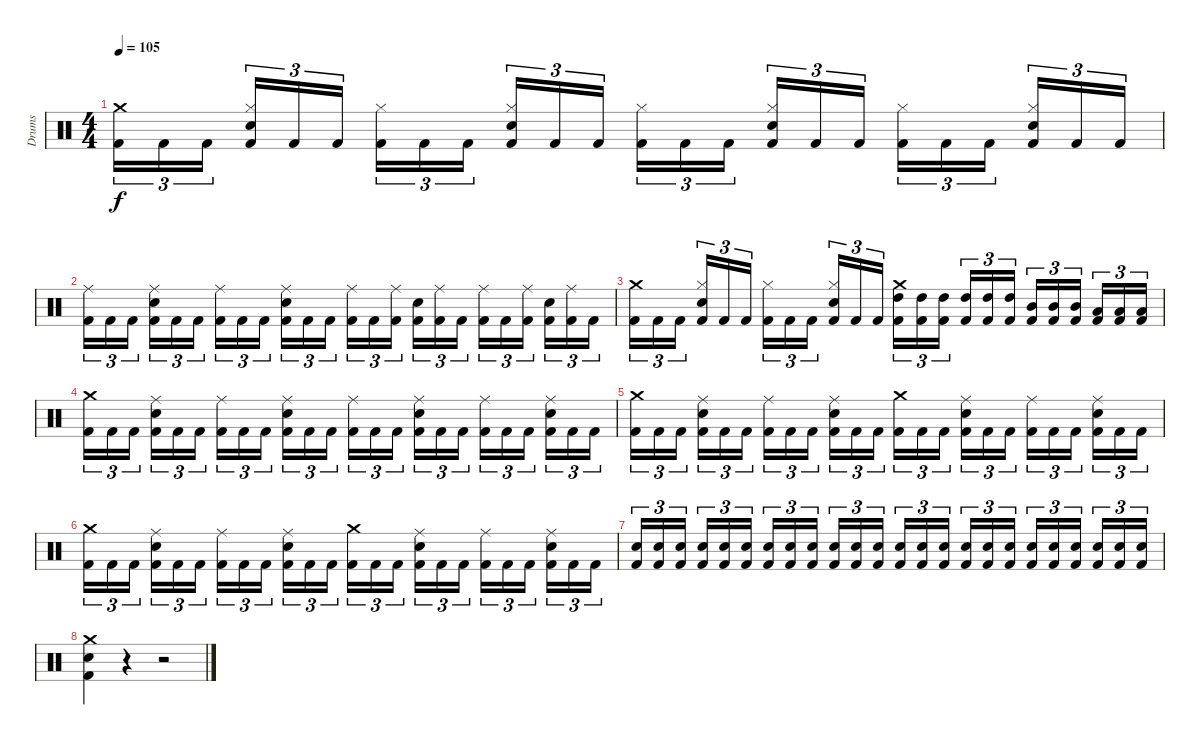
\track ("Drums" "Drums") {instrument percussion}
\staff {score}
\articulation defaults
\ts (4 4)
\tempo 105
\clef neutral
\ks c
("Crash medium (hit)" "Kick (hit) 2").16{tu (3 2) dy f} "Kick (hit) 2".16{tu (3 2)} "Kick (hit) 2".16{tu (3 2)} ("Hi-Hat (closed)" "Electric Snare (hit)" "Kick (hit) 2").16{tu (3 2)} "Kick (hit) 2".16{tu (3 2)} "Kick (hit) 2".16{tu (3 2)} ("Hi-Hat (closed)" "Kick (hit) 2").16{tu (3 2)} "Kick (hit) 2".16{tu (3 2)} "Kick (hit) 2".16{tu (3 2)} ("Hi-Hat (closed)" "Electric Snare (hit)" "Kick (hit) 2").16{tu (3 2)} "Kick (hit) 2".16{tu (3 2)} "Kick (hit) 2".16{tu (3 2)} ("Hi-Hat (closed)" "Kick (hit) 2").16{tu (3 2)} "Kick (hit) 2".16{tu (3 2)} "Kick (hit) 2".16{tu (3 2)} ("Hi-Hat (closed)" "Electric Snare (hit)" "Kick (hit) 2").16{tu (3 2)} "Kick (hit) 2".16{tu (3 2)} "Kick (hit) 2".16{tu (3 2)} ("Hi-Hat (closed)" "Kick (hit) 2").16{tu (3 2)} "Kick (hit) 2".16{tu (3 2)} "Kick (hit) 2".16{tu (3 2)} ("Hi-Hat (closed)" "Electric Snare (hit)" "Kick (hit) 2").16{tu (3 2)} "Kick (hit) 2".16{tu (3 2)} "Kick (hit) 2".16{tu (3 2)} |
("Ride (middle)" "Kick (hit) 2").16{tu (3 2)} "Kick (hit) 2".16{tu (3 2)} "Kick (hit) 2".16{tu (3 2)} ("Ride (middle)" "Electric Snare (hit)" "Kick (hit) 2").16{tu (3 2)} "Kick (hit) 2".16{tu (3 2)} "Kick (hit) 2".16{tu (3 2)} ("Ride (middle)" "Kick (hit) 2").16{tu (3 2)} "Kick (hit) 2".16{tu (3 2)} "Kick (hit) 2".16{tu (3 2)} ("Ride (middle)" "Electric Snare (hit)" "Kick (hit) 2").16{tu (3 2)} "Kick (hit) 2".16{tu (3 2)} "Kick (hit) 2".16{tu (3 2)} ("Ride (middle)" "Kick (hit) 2").16{tu (3 2)} "Kick (hit) 2".16{tu (3 2)} ("Ride (middle)" "Kick (hit) 2").16{tu (3 2)} ("Electric Snare (hit)" "Kick (hit) 2").16{tu (3 2)} ("Ride (middle)" "Kick (hit) 2").16{tu (3 2)} "Kick (hit) 2".16{tu (3 2)} ("Ride (middle)" "Kick (hit) 2").16{tu (3 2)} "Kick (hit) 2".16{tu (3 2)} ("Ride (middle)" "Kick (hit) 2").16{tu (3 2)} ("Electric Snare (hit)" "Kick (hit) 2").16{tu (3 2)} ("Ride (middle)" "Kick (hit) 2").16{tu (3 2)} "Kick (hit) 2".16{tu (3 2)} |
("Crash medium (hit)" "Kick (hit) 2").16{tu (3 2)} "Kick (hit) 2".16{tu (3 2)} "Kick (hit) 2".16{tu (3 2)} ("Hi-Hat (closed)" "Electric Snare (hit)" "Kick (hit) 2").16{tu (3 2)} "Kick (hit) 2".16{tu (3 2)} "Kick (hit) 2".16{tu (3 2)} ("Hi-Hat (closed)" "Kick (hit) 2").16{tu (3 2)} "Kick (hit) 2".16{tu (3 2)} "Kick (hit) 2".16{tu (3 2)} ("Hi-Hat (closed)" "Electric Snare (hit)" "Kick (hit) 2").16{tu (3 2)} "Kick (hit) 2".16{tu (3 2)} "Kick (hit) 2".16{tu (3 2)} ("Crash medium (hit)" "High Tom (hit)" "Kick (hit) 2").16{tu (3 2)} ("High Tom (hit)" "Kick (hit) 2").16{tu (3 2)} ("High Tom (hit)" "Kick (hit) 2").16{tu (3 2)} ("High Tom (hit)" "Kick (hit) 2").16{tu (3 2)} ("High Tom (hit)" "Kick (hit) 2").16{tu (3 2)} ("High Tom (hit)" "Kick (hit) 2").16{tu (3 2)} ("Mid Tom (hit)" "Kick (hit) 2").16{tu (3 2)} ("Mid Tom (hit)" "Kick (hit) 2").16{tu (3 2)} ("Mid Tom (hit)" "Kick (hit) 2").16{tu (3 2)} ("Low Tom (hit)" "Kick (hit) 2").16{tu (3 2)} ("Low Tom (hit)" "Kick (hit) 2").16{tu (3 2)} ("Low Tom (hit)" "Kick (hit) 2").16{tu (3 2)} |
("Crash medium (hit)" "Kick (hit) 2").16{tu (3 2)} "Kick (hit) 2".16{tu (3 2)} "Kick (hit) 2".16{tu (3 2)} ("Ride (middle)" "Electric Snare (hit)" "Kick (hit) 2").16{tu (3 2)} "Kick (hit) 2".16{tu (3 2)} "Kick (hit) 2".16{tu (3 2)} ("Ride (middle)" "Kick (hit) 2").16{tu (3 2)} "Kick (hit) 2".16{tu (3 2)} "Kick (hit) 2".16{tu (3 2)} ("Ride (middle)" "Electric Snare (hit)" "Kick (hit) 2").16{tu (3 2)} "Kick (hit) 2".16{tu (3 2)} "Kick (hit) 2".16{tu (3 2)} ("Ride (middle)" "Kick (hit) 2").16{tu (3 2)} "Kick (hit) 2".16{tu (3 2)} "Kick (hit) 2".16{tu (3 2)} ("Ride (middle)" "Electric Snare (hit)" "Kick (hit) 2").16{tu (3 2)} "Kick (hit) 2".16{tu (3 2)} "Kick (hit) 2".16{tu (3 2)} ("Ride (middle)" "Kick (hit) 2").16{tu (3 2)} "Kick (hit) 2".16{tu (3 2)} "Kick (hit) 2".16{tu (3 2)} ("Ride (middle)" "Electric Snare (hit)" "Kick (hit) 2").16{tu (3 2)} "Kick (hit) 2".16{tu (3 2)} "Kick (hit) 2".16{tu (3 2)} |
("Crash medium (hit)" "Kick (hit) 2").16{tu (3 2)} "Kick (hit) 2".16{tu (3 2)} "Kick (hit) 2".16{tu (3 2)} ("Ride (middle)" "Electric Snare (hit)" "Kick (hit) 2").16{tu (3 2)} "Kick (hit) 2".16{tu (3 2)} "Kick (hit) 2".16{tu (3 2)} ("Ride (middle)" "Kick (hit) 2").16{tu (3 2)} "Kick (hit) 2".16{tu (3 2)} "Kick (hit) 2".16{tu (3 2)} ("Ride (middle)" "Electric Snare (hit)" "Kick (hit) 2").16{tu (3 2)} "Kick (hit) 2".16{tu (3 2)} "Kick (hit) 2".16{tu (3 2)} ("Crash medium (hit)" "Kick (hit) 2").16{tu (3 2)} "Kick (hit) 2".16{tu (3 2)} "Kick (hit) 2".16{tu (3 2)} ("Ride (middle)" "Electric Snare (hit)" "Kick (hit) 2").16{tu (3 2)} "Kick (hit) 2".16{tu (3 2)} "Kick (hit) 2".16{tu (3 2)} ("Ride (middle)" "Kick (hit) 2").16{tu (3 2)} "Kick (hit) 2".16{tu (3 2)} "Kick (hit) 2".16{tu (3 2)} ("Ride (middle)" "Electric Snare (hit)" "Kick (hit) 2").16{tu (3 2)} "Kick (hit) 2".16{tu (3 2)} "Kick (hit) 2".16{tu (3 2)} |
("Crash medium (hit)" "Kick (hit) 2").16{tu (3 2)} "Kick (hit) 2".16{tu (3 2)} "Kick (hit) 2".16{tu (3 2)} ("Ride (middle)" "Electric Snare (hit)" "Kick (hit) 2").16{tu (3 2)} "Kick (hit) 2".16{tu (3 2)} "Kick (hit) 2".16{tu (3 2)} ("Ride (middle)" "Kick (hit) 2").16{tu (3 2)} "Kick (hit) 2".16{tu (3 2)} "Kick (hit) 2".16{tu (3 2)} ("Ride (middle)" "Electric Snare (hit)" "Kick (hit) 2").16{tu (3 2)} "Kick (hit) 2".16{tu (3 2)} "Kick (hit) 2".16{tu (3 2)} ("Crash medium (hit)" "Kick (hit) 2").16{tu (3 2)} "Kick (hit) 2".16{tu (3 2)} "Kick (hit) 2".16{tu (3 2)} ("Ride (middle)" "Electric Snare (hit)" "Kick (hit) 2").16{tu (3 2)} "Kick (hit) 2".16{tu (3 2)} "Kick (hit) 2".16{tu (3 2)} ("Ride (middle)" "Kick (hit) 2").16{tu (3 2)} "Kick (hit) 2".16{tu (3 2)} "Kick (hit) 2".16{tu (3 2)} ("Ride (middle)" "Electric Snare (hit)" "Kick (hit) 2").16{tu (3 2)} "Kick (hit) 2".16{tu (3 2)} "Kick (hit) 2".16{tu (3 2)} |
("Electric Snare (hit)" "Kick (hit) 2").16{tu (3 2)} ("Electric Snare (hit)" "Kick (hit) 2").16{tu (3 2)} ("Electric Snare (hit)" "Kick (hit) 2").16{tu (3 2)} ("Electric Snare (hit)" "Kick (hit) 2").16{tu (3 2)} ("Electric Snare (hit)" "Kick (hit) 2").16{tu (3 2)} ("Electric Snare (hit)" "Kick (hit) 2").16{tu (3 2)} ("Electric Snare (hit)" "Kick (hit) 2").16{tu (3 2)} ("Electric Snare (hit)" "Kick (hit) 2").16{tu (3 2)} ("Electric Snare (hit)" "Kick (hit) 2").16{tu (3 2)} ("Electric Snare (hit)" "Kick (hit) 2").16{tu (3 2)} ("Electric Snare (hit)" "Kick (hit) 2").16{tu (3 2)} ("Electric Snare (hit)" "Kick (hit) 2").16{tu (3 2)} ("Electric Snare (hit)" "Kick (hit) 2").16{tu (3 2)} ("Electric Snare (hit)" "Kick (hit) 2").16{tu (3 2)} ("Electric Snare (hit)" "Kick (hit) 2").16{tu (3 2)} ("Electric Snare (hit)" "Kick (hit) 2").16{tu (3 2)} ("Electric Snare (hit)" "Kick (hit) 2").16{tu (3 2)} ("Electric Snare (hit)" "Kick (hit) 2").16{tu (3 2)} ("Electric Snare (hit)" "Kick (hit) 2").16{tu (3 2)} ("Electric Snare (hit)" "Kick (hit) 2").16{tu (3 2)} ("Electric Snare (hit)" "Kick (hit) 2").16{tu (3 2)} ("Electric Snare (hit)" "Kick (hit) 2").16{tu (3 2)} ("Electric Snare (hit)" "Kick (hit) 2").16{tu (3 2)} ("Electric Snare (hit)" "Kick (hit) 2").16{tu (3 2)} |
("Crash medium (hit)" "Electric Snare (hit)" "Kick (hit) 2").4 r.4 r.2
